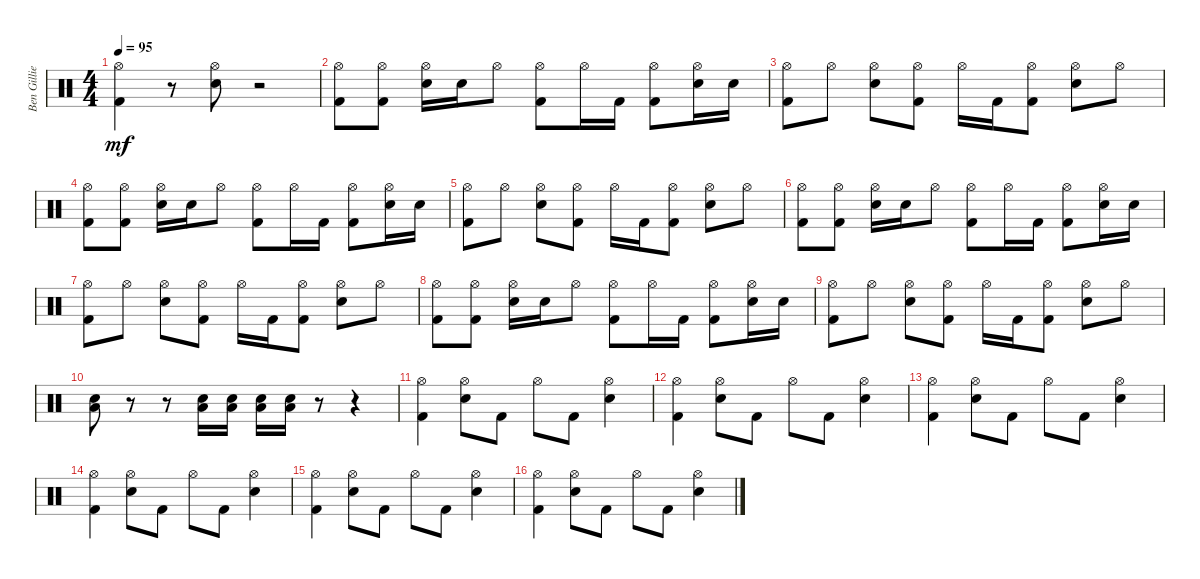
\track ("Ben Gillies" "Ben Gillie") {instrument percussion}
\staff {score}
\articulation defaults
\ts (4 4)
\tempo 95
\clef neutral
\ks c
("Hi-Hat (open)" "Kick (hit) 2").4{dy mf} r.8 ("Hi-Hat (open)" "Electric Snare (hit)").8 r.2 |
("Hi-Hat (open)" "Kick (hit) 2").8 ("Hi-Hat (open)" "Kick (hit) 2").8 ("Hi-Hat (open)" "Electric Snare (hit)").16 "Electric Snare (hit)".16 "Hi-Hat (open)".8 ("Hi-Hat (open)" "Kick (hit) 2").8 "Hi-Hat (open)".16 "Kick (hit) 2".16 ("Hi-Hat (open)" "Kick (hit) 2").8 ("Hi-Hat (open)" "Electric Snare (hit)").16 "Electric Snare (hit)".16 |
("Hi-Hat (open)" "Kick (hit) 2").8 "Hi-Hat (open)".8 ("Hi-Hat (open)" "Electric Snare (hit)").8 ("Hi-Hat (open)" "Kick (hit) 2").8 "Hi-Hat (open)".16 "Kick (hit) 2".16 ("Hi-Hat (open)" "Kick (hit) 2").8 ("Hi-Hat (open)" "Electric Snare (hit)").8 "Hi-Hat (open)".8 |
("Hi-Hat (open)" "Kick (hit) 2").8 ("Hi-Hat (open)" "Kick (hit) 2").8 ("Hi-Hat (open)" "Electric Snare (hit)").16 "Electric Snare (hit)".16 "Hi-Hat (open)".8 ("Hi-Hat (open)" "Kick (hit) 2").8 "Hi-Hat (open)".16 "Kick (hit) 2".16 ("Hi-Hat (open)" "Kick (hit) 2").8 ("Hi-Hat (open)" "Electric Snare (hit)").16 "Electric Snare (hit)".16 |
("Hi-Hat (open)" "Kick (hit) 2").8 "Hi-Hat (open)".8 ("Hi-Hat (open)" "Electric Snare (hit)").8 ("Hi-Hat (open)" "Kick (hit) 2").8 "Hi-Hat (open)".16 "Kick (hit) 2".16 ("Hi-Hat (open)" "Kick (hit) 2").8 ("Hi-Hat (open)" "Electric Snare (hit)").8 "Hi-Hat (open)".8 |
("Hi-Hat (open)" "Kick (hit) 2").8 ("Hi-Hat (open)" "Kick (hit) 2").8 ("Hi-Hat (open)" "Electric Snare (hit)").16 "Electric Snare (hit)".16 "Hi-Hat (open)".8 ("Hi-Hat (open)" "Kick (hit) 2").8 "Hi-Hat (open)".16 "Kick (hit) 2".16 ("Hi-Hat (open)" "Kick (hit) 2").8 ("Hi-Hat (open)" "Electric Snare (hit)").16 "Electric Snare (hit)".16 |
("Hi-Hat (open)" "Kick (hit) 2").8 "Hi-Hat (open)".8 ("Hi-Hat (open)" "Electric Snare (hit)").8 ("Hi-Hat (open)" "Kick (hit) 2").8 "Hi-Hat (open)".16 "Kick (hit) 2".16 ("Hi-Hat (open)" "Kick (hit) 2").8 ("Hi-Hat (open)" "Electric Snare (hit)").8 "Hi-Hat (open)".8 |
("Hi-Hat (open)" "Kick (hit) 2").8 ("Hi-Hat (open)" "Kick (hit) 2").8 ("Hi-Hat (open)" "Electric Snare (hit)").16 "Electric Snare (hit)".16 "Hi-Hat (open)".8 ("Hi-Hat (open)" "Kick (hit) 2").8 "Hi-Hat (open)".16 "Kick (hit) 2".16 ("Hi-Hat (open)" "Kick (hit) 2").8 ("Hi-Hat (open)" "Electric Snare (hit)").16 "Electric Snare (hit)".16 |
("Hi-Hat (open)" "Kick (hit) 2").8 "Hi-Hat (open)".8 ("Hi-Hat (open)" "Electric Snare (hit)").8 ("Hi-Hat (open)" "Kick (hit) 2").8 "Hi-Hat (open)".16 "Kick (hit) 2".16 ("Hi-Hat (open)" "Kick (hit) 2").8 ("Hi-Hat (open)" "Electric Snare (hit)").8 "Hi-Hat (open)".8 |
("Low Floor Tom (hit)" "Electric Snare (hit)").8 r.8 r.8 ("Low Floor Tom (hit)" "Electric Snare (hit)").16 ("Low Floor Tom (hit)" "Electric Snare (hit)").16 ("Low Floor Tom (hit)" "Electric Snare (hit)").16 ("Low Floor Tom (hit)" "Electric Snare (hit)").16 r.8 r.4 |
("Hi-Hat (open)" "Kick (hit) 2").4 ("Hi-Hat (open)" "Electric Snare (hit)").8 "Kick (hit) 2".8 "Hi-Hat (open)".8 "Kick (hit) 2".8 ("Hi-Hat (open)" "Electric Snare (hit)").4 |
("Hi-Hat (open)" "Kick (hit) 2").4 ("Hi-Hat (open)" "Electric Snare (hit)").8 "Kick (hit) 2".8 "Hi-Hat (open)".8 "Kick (hit) 2".8 ("Hi-Hat (open)" "Electric Snare (hit)").4 |
("Hi-Hat (open)" "Kick (hit) 2").4 ("Hi-Hat (open)" "Electric Snare (hit)").8 "Kick (hit) 2".8 "Hi-Hat (open)".8 "Kick (hit) 2".8 ("Hi-Hat (open)" "Electric Snare (hit)").4 |
("Hi-Hat (open)" "Kick (hit) 2").4 ("Hi-Hat (open)" "Electric Snare (hit)").8 "Kick (hit) 2".8 "Hi-Hat (open)".8 "Kick (hit) 2".8 ("Hi-Hat (open)" "Electric Snare (hit)").4 |
("Hi-Hat (open)" "Kick (hit) 2").4 ("Hi-Hat (open)" "Electric Snare (hit)").8 "Kick (hit) 2".8 "Hi-Hat (open)".8 "Kick (hit) 2".8 ("Hi-Hat (open)" "Electric Snare (hit)").4 |
("Hi-Hat (open)" "Kick (hit) 2").4 ("Hi-Hat (open)" "Electric Snare (hit)").8 "Kick (hit) 2".8 "Hi-Hat (open)".8 "Kick (hit) 2".8 ("Hi-Hat (open)" "Electric Snare (hit)").4
